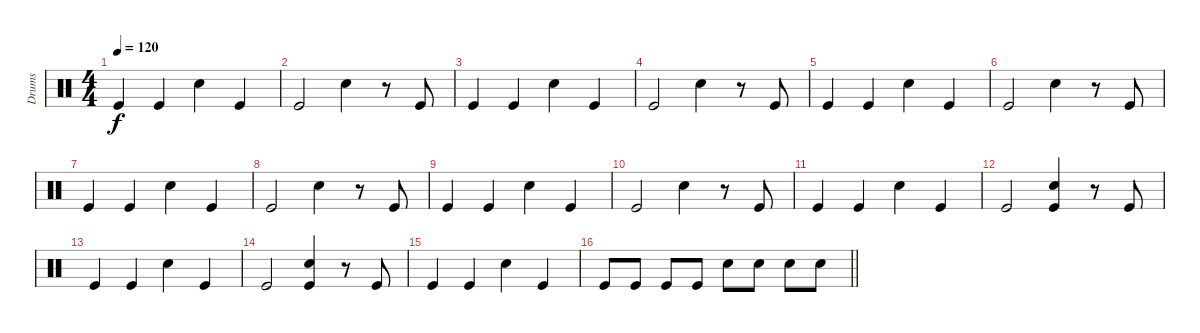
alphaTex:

\track ("Drums" "Drums") {instrument percussion}
\staff {score}
\articulation defaults
\ts (4 4)
\tempo 120
\clef neutral
\ks c "Kick (hit)".4{dy f} "Kick (hit)".4 "Snare (hit) 2".4 "Kick (hit)".4
|
"Kick (hit)".2 "Snare (hit) 2".4 r.8 "Kick (hit)".8 |
"Kick (hit)".4 "Kick (hit)".4 "Snare (hit) 2".4 "Kick (hit)".4 |
"Kick (hit)".2 "Snare (hit) 2".4 r.8 "Kick (hit)".8 |
"Kick (hit)".4 "Kick (hit)".4 "Snare (hit) 2".4 "Kick (hit)".4 |
"Kick (hit)".2 "Snare (hit) 2".4 r.8 "Kick (hit)".8 |
"Kick (hit)".4 "Kick (hit)".4 "Snare (hit) 2".4 "Kick (hit)".4 |
"Kick (hit)".2 "Snare (hit) 2".4 r.8 "Kick (hit)".8 |
"Kick (hit)".4 "Kick (hit)".4 "Snare (hit) 2".4 "Kick (hit)".4 |
"Kick (hit)".2 "Snare (hit) 2".4 r.8 "Kick (hit)".8 |
"Kick (hit)".4 "Kick (hit)".4 "Snare (hit) 2".4 "Kick (hit)".4 |
"Kick (hit)".2 ("Snare (hit) 2" "Kick (hit)").4 r.8 "Kick (hit)".8 |
"Kick (hit)".4 "Kick (hit)".4 "Snare (hit) 2".4 "Kick (hit)".4 |
"Kick (hit)".2 ("Snare (hit) 2" "Kick (hit)").4 r.8 "Kick (hit)".8 |
"Kick (hit)".4 "Kick (hit)".4 "Snare (hit) 2".4 "Kick (hit)".4 |
\barLineRight lightlight "Kick (hit)".8 "Kick (hit)".8 "Kick (hit)".8 "Kick (hit)".8 "Snare (hit) 2".8 "Snare (hit) 2".8 "Snare (hit) 2".8 "Snare (hit) 2".8
